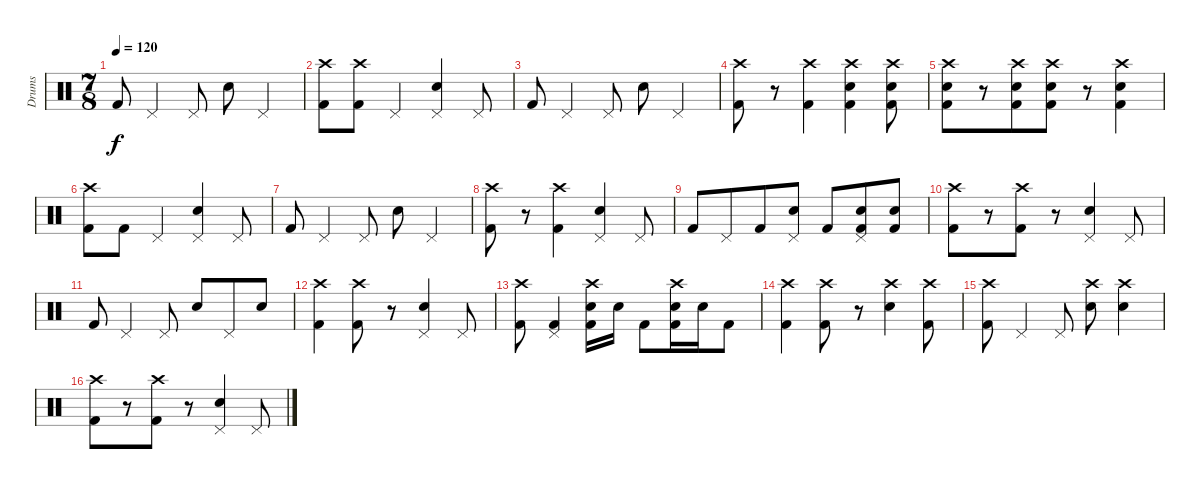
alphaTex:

\track ("Drums" "Drums") {instrument percussion}
\staff {score}
\articulation defaults
\ts (7 8)
\tempo 120
\clef neutral
\ks c "Kick (hit) 2".8{dy f} "Pedal Hi-Hat (hit)".4 "Pedal Hi-Hat (hit)".8 "Electric Snare (hit)".8 "Pedal Hi-Hat (hit)".4
|
("Crash high (hit)" "Kick (hit) 2").8 ("Crash high (hit)" "Kick (hit) 2").8 "Pedal Hi-Hat (hit)".4 ("Pedal Hi-Hat (hit)" "Electric Snare (hit)").4 "Pedal Hi-Hat (hit)".8 |
"Kick (hit) 2".8 "Pedal Hi-Hat (hit)".4 "Pedal Hi-Hat (hit)".8 "Electric Snare (hit)".8 "Pedal Hi-Hat (hit)".4 |
("Crash high (hit)" "Kick (hit) 2").8 r.8 ("Crash high (hit)" "Kick (hit) 2").4 ("Crash high (hit)" "Kick (hit) 2" "Electric Snare (hit)").4 ("Crash high (hit)" "Kick (hit) 2" "Electric Snare (hit)").8 |
("Crash high (hit)" "Kick (hit) 2" "Electric Snare (hit)").8 r.8 ("Crash high (hit)" "Kick (hit) 2" "Electric Snare (hit)").8 ("Crash high (hit)" "Kick (hit) 2" "Electric Snare (hit)").8 r.8 ("Crash high (hit)" "Kick (hit) 2" "Electric Snare (hit)").4 |
("Crash high (hit)" "Kick (hit) 2").8 "Kick (hit) 2".8 "Pedal Hi-Hat (hit)".4 ("Pedal Hi-Hat (hit)" "Electric Snare (hit)").4 "Pedal Hi-Hat (hit)".8 |
"Kick (hit) 2".8 "Pedal Hi-Hat (hit)".4 "Pedal Hi-Hat (hit)".8 "Electric Snare (hit)".8 "Pedal Hi-Hat (hit)".4 |
("Crash high (hit)" "Kick (hit) 2").8 r.8 ("Crash high (hit)" "Kick (hit) 2").4 ("Pedal Hi-Hat (hit)" "Electric Snare (hit)").4 "Pedal Hi-Hat (hit)".8 |
"Kick (hit) 2".8 "Pedal Hi-Hat (hit)".8 "Kick (hit) 2".8 ("Pedal Hi-Hat (hit)" "Electric Snare (hit)").8 "Kick (hit) 2".8 ("Pedal Hi-Hat (hit)" "Kick (hit) 2" "Electric Snare (hit)").8 ("Kick (hit) 2" "Electric Snare (hit)").8 |
("Crash high (hit)" "Kick (hit) 2").8 r.8 ("Crash high (hit)" "Kick (hit) 2").8 r.8 ("Pedal Hi-Hat (hit)" "Electric Snare (hit)").4 "Pedal Hi-Hat (hit)".8 |
"Kick (hit) 2".8 "Pedal Hi-Hat (hit)".4 "Pedal Hi-Hat (hit)".8 "Electric Snare (hit)".8 "Pedal Hi-Hat (hit)".8 "Electric Snare (hit)".8 |
("Crash high (hit)" "Kick (hit) 2").4 ("Crash high (hit)" "Kick (hit) 2").8 r.8 ("Pedal Hi-Hat (hit)" "Electric Snare (hit)").4 "Pedal Hi-Hat (hit)".8 |
("Crash high (hit)" "Kick (hit) 2").8 ("Pedal Hi-Hat (hit)" "Kick (hit) 2").4 ("Crash high (hit)" "Kick (hit) 2" "Electric Snare (hit)").16 "Electric Snare (hit)".16 "Kick (hit) 2".8 ("Crash high (hit)" "Kick (hit) 2" "Electric Snare (hit)").16 "Electric Snare (hit)".16 "Kick (hit) 2".8 |
("Crash high (hit)" "Kick (hit) 2").4 ("Crash high (hit)" "Kick (hit) 2").8 r.8 ("Crash high (hit)" "Electric Snare (hit)").4 ("Crash high (hit)" "Kick (hit) 2").8 |
("Crash high (hit)" "Kick (hit) 2").8 "Pedal Hi-Hat (hit)".4 "Pedal Hi-Hat (hit)".8 ("Crash high (hit)" "Electric Snare (hit)").8 ("Crash high (hit)" "Electric Snare (hit)").4 |
("Crash high (hit)" "Kick (hit) 2").8 r.8 ("Crash high (hit)" "Kick (hit) 2").8 r.8 ("Pedal Hi-Hat (hit)" "Electric Snare (hit)").4 "Pedal Hi-Hat (hit)".8
